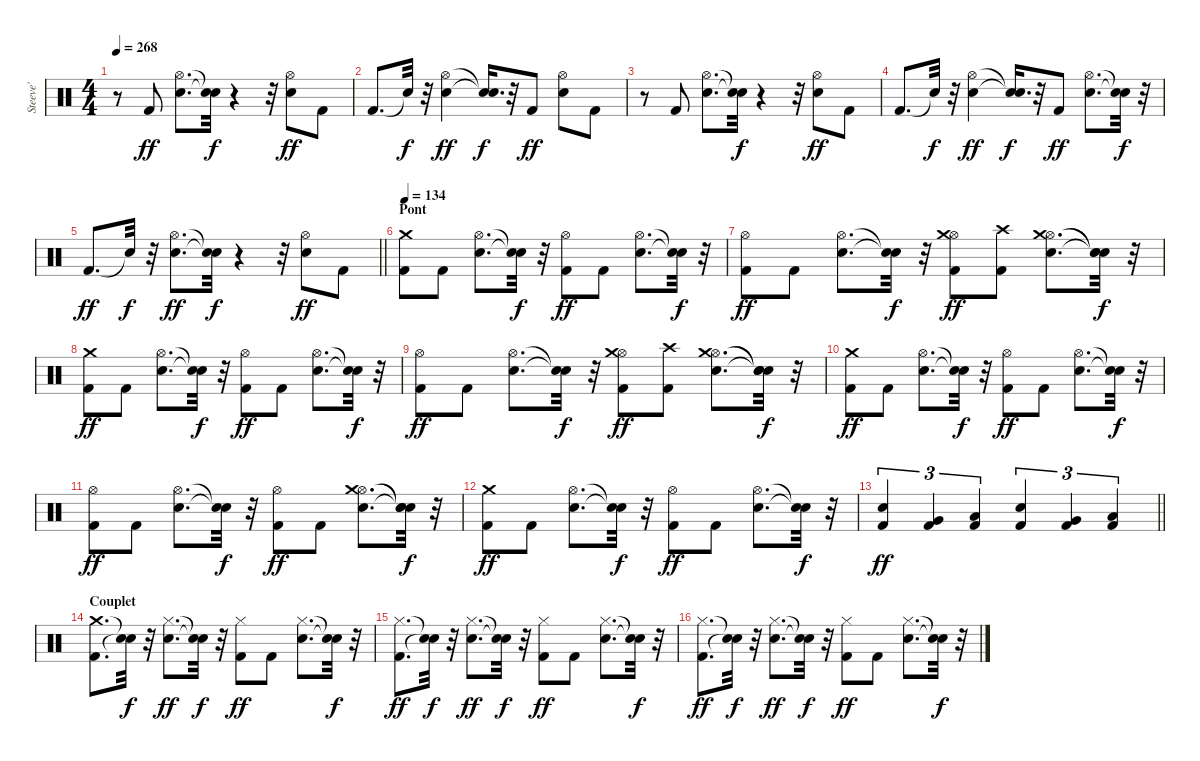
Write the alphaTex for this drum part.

\track ("Steeve'" "Steeve'") {instrument percussion}
\staff {score}
\articulation defaults
\ts (4 4)
\tempo 268
\clef neutral
\ks c
r.8{dy f} "Kick (hit) 2".8{dy ff} ("Electric Snare (hit)" "Hi-Hat (open)").8{d} ("Snare (hit)"{t} "Snare (hit)"{t}).32{dy f} r.4 r.32 ("Electric Snare (hit)" "Hi-Hat (open)").8{dy ff} "Kick (hit) 2".8 |
"Kick (hit) 2".8{d} "Snare (hit)"{t}.32{dy f} r.32 ("Electric Snare (hit)" "Hi-Hat (open)").4{dy ff} ("Snare (hit)"{t} "Snare (hit)"{t}).16{d dy f} r.32 "Kick (hit) 2".8{dy ff} ("Electric Snare (hit)" "Hi-Hat (open)").8 "Kick (hit) 2".8 |
r.8 "Kick (hit) 2".8 ("Electric Snare (hit)" "Hi-Hat (open)").8{d} ("Snare (hit)"{t} "Snare (hit)"{t}).32{dy f} r.4 r.32 ("Electric Snare (hit)" "Hi-Hat (open)").8{dy ff} "Kick (hit) 2".8 |
"Kick (hit) 2".8{d} "Snare (hit)"{t}.32{dy f} r.32 ("Electric Snare (hit)" "Hi-Hat (open)").4{dy ff} ("Snare (hit)"{t} "Snare (hit)"{t}).16{d dy f} r.32 "Kick (hit) 2".8{dy ff} ("Electric Snare (hit)" "Hi-Hat (open)").8{d} ("Snare (hit)"{t} "Snare (hit)"{t}).32{dy f} r.32 |
\barLineRight lightlight "Kick (hit) 2".8{d dy ff} "Snare (hit)"{t}.32{dy f}
r.32 ("Electric Snare (hit)" "Hi-Hat (open)").8{d dy ff} ("Snare (hit)"{t} "Snare (hit)"{t}).32{dy f} r.4 r.32 ("Electric Snare (hit)" "Hi-Hat (open)").8{dy ff} "Kick (hit) 2".8 |
\section ("" "Pont")
\tempo 134
("Kick (hit) 2" "Crash medium (hit)").8 "Kick (hit) 2".8 ("Electric Snare (hit)" "Hi-Hat (open)").8{d} ("Snare (hit)"{t} "Snare (hit)"{t}).32{dy f} r.32 ("Kick (hit) 2" "Hi-Hat (open)").8{dy ff} "Kick (hit) 2".8 ("Electric Snare (hit)" "Hi-Hat (open)").8{d} ("Snare (hit)"{t} "Snare (hit)"{t}).32{dy f} r.32 |
("Kick (hit) 2" "Hi-Hat (open)").8{dy ff} "Kick (hit) 2".8 ("Electric Snare (hit)" "Hi-Hat (open)").8{d} ("Snare (hit)"{t} "Snare (hit)"{t}).32{dy f} r.32 ("Kick (hit) 2" "Hi-Hat (open)" "Crash medium (hit)").8{dy ff} ("Kick (hit) 2" "Crash high (hit)").8 ("Electric Snare (hit)" "Hi-Hat (open)" "Crash medium (hit)").8{d} ("Snare (hit)"{t} "Snare (hit)"{t} "Snare (hit)"{t}).32{dy f} r.32 |
("Kick (hit) 2" "Crash medium (hit)").8{dy ff} "Kick (hit) 2".8 ("Electric Snare (hit)" "Hi-Hat (open)").8{d} ("Snare (hit)"{t} "Snare (hit)"{t}).32{dy f} r.32 ("Kick (hit) 2" "Hi-Hat (open)").8{dy ff} "Kick (hit) 2".8 ("Electric Snare (hit)" "Hi-Hat (open)").8{d} ("Snare (hit)"{t} "Snare (hit)"{t}).32{dy f} r.32 |
("Kick (hit) 2" "Hi-Hat (open)").8{dy ff} "Kick (hit) 2".8 ("Electric Snare (hit)" "Hi-Hat (open)").8{d} ("Snare (hit)"{t} "Snare (hit)"{t}).32{dy f} r.32 ("Kick (hit) 2" "Hi-Hat (open)" "Crash medium (hit)").8{dy ff} ("Kick (hit) 2" "Crash high (hit)").8 ("Electric Snare (hit)" "Hi-Hat (open)" "Crash medium (hit)").8{d} ("Snare (hit)"{t} "Snare (hit)"{t} "Snare (hit)"{t}).32{dy f} r.32 |
("Kick (hit) 2" "Crash medium (hit)").8{dy ff} "Kick (hit) 2".8 ("Electric Snare (hit)" "Hi-Hat (open)").8{d} ("Snare (hit)"{t} "Snare (hit)"{t}).32{dy f} r.32 ("Kick (hit) 2" "Hi-Hat (open)").8{dy ff} "Kick (hit) 2".8 ("Electric Snare (hit)" "Hi-Hat (open)").8{d} ("Snare (hit)"{t} "Snare (hit)"{t}).32{dy f} r.32 |
("Kick (hit) 2" "Hi-Hat (open)").8{dy ff} "Kick (hit) 2".8 ("Electric Snare (hit)" "Hi-Hat (open)").8{d} ("Snare (hit)"{t} "Snare (hit)"{t}).32{dy f} r.32 ("Kick (hit) 2" "Hi-Hat (open)").8{dy ff} "Kick (hit) 2".8 ("Electric Snare (hit)" "Hi-Hat (open)" "Crash medium (hit)").8{d} ("Snare (hit)"{t} "Snare (hit)"{t} "Snare (hit)"{t}).32{dy f} r.32 |
("Kick (hit) 2" "Crash medium (hit)").8{dy ff} "Kick (hit) 2".8 ("Electric Snare (hit)" "Hi-Hat (open)").8{d} ("Snare (hit)"{t} "Snare (hit)"{t}).32{dy f} r.32 ("Kick (hit) 2" "Hi-Hat (open)").8{dy ff} "Kick (hit) 2".8 ("Electric Snare (hit)" "Hi-Hat (open)").8{d} ("Snare (hit)"{t} "Snare (hit)"{t}).32{dy f} r.32 |
\barLineRight lightlight
("Kick (hit) 2" "Electric Snare (hit)").4{tu (3 2) dy ff} ("Kick (hit) 2" "Very Low Tom (hit)").4{tu (3 2)} ("Kick (hit) 2" "Low Floor Tom (hit)").4{tu (3 2)} ("Kick (hit) 2" "Electric Snare (hit)").4{tu (3 2)} ("Kick (hit) 2" "Very Low Tom (hit)").4{tu (3 2)} ("Kick (hit) 2" "Low Floor Tom (hit)").4{tu (3 2)} |
\section ("" "Couplet")
("Kick (hit) 2" "Crash medium (hit)").8{d} ("Snare (hit)"{t} "Snare (hit)"{t}).32{dy f} r.32 ("Electric Snare (hit)" "Hi-Hat (closed)").8{d dy ff} ("Snare (hit)"{t} "Snare (hit)"{t}).32{dy f} r.32 ("Kick (hit) 2" "Hi-Hat (closed)").8{dy ff} "Kick (hit) 2".8 ("Electric Snare (hit)" "Hi-Hat (closed)").8{d} ("Snare (hit)"{t} "Snare (hit)"{t}).32{dy f} r.32 |
("Kick (hit) 2" "Hi-Hat (closed)").8{d dy ff} ("Snare (hit)"{t} "Snare (hit)"{t}).32{dy f} r.32 ("Electric Snare (hit)" "Hi-Hat (closed)").8{d dy ff} ("Snare (hit)"{t} "Snare (hit)"{t}).32{dy f} r.32 ("Kick (hit) 2" "Hi-Hat (closed)").8{dy ff} "Kick (hit) 2".8 ("Electric Snare (hit)" "Hi-Hat (closed)").8{d} ("Snare (hit)"{t} "Snare (hit)"{t}).32{dy f} r.32 |
("Kick (hit) 2" "Hi-Hat (closed)").8{d dy ff} ("Snare (hit)"{t} "Snare (hit)"{t}).32{dy f} r.32 ("Electric Snare (hit)" "Hi-Hat (closed)").8{d dy ff} ("Snare (hit)"{t} "Snare (hit)"{t}).32{dy f} r.32 ("Kick (hit) 2" "Hi-Hat (closed)").8{dy ff} "Kick (hit) 2".8 ("Electric Snare (hit)" "Hi-Hat (closed)").8{d} ("Snare (hit)"{t} "Snare (hit)"{t}).32{dy f} r.32
